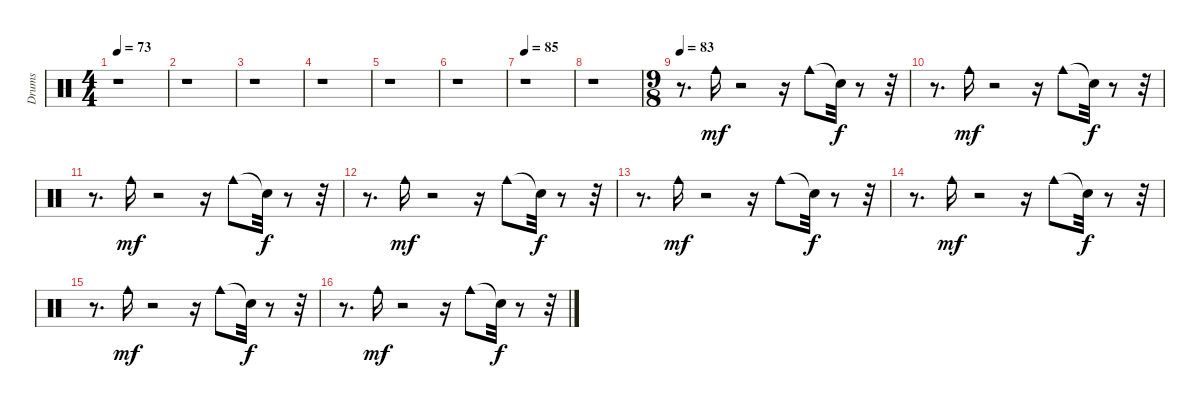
\track ("Drums" "Drums") {instrument percussion}
\staff {score}
\articulation defaults
\ts (4 4)
\tempo 73
\clef neutral
\ks c
r.1{dy mf} |
r.1 |
r.1 |
r.1 |
r.1 |
r.1 |
\tempo 85
r.1 |
r.1 |
\ts (9 8)
\tempo 83
r.8{d} "Cowbell medium (hit)".16 r.2 r.16 "Cowbell medium (hit)".8 "Snare (hit)"{t}.32{dy f} r.8 r.32 |
r.8{d} "Cowbell medium (hit)".16{dy mf} r.2 r.16 "Cowbell medium (hit)".8 "Snare (hit)"{t}.32{dy f} r.8 r.32 |
r.8{d} "Cowbell medium (hit)".16{dy mf} r.2 r.16 "Cowbell medium (hit)".8 "Snare (hit)"{t}.32{dy f} r.8 r.32 |
r.8{d} "Cowbell medium (hit)".16{dy mf} r.2 r.16 "Cowbell medium (hit)".8 "Snare (hit)"{t}.32{dy f} r.8 r.32 |
r.8{d} "Cowbell medium (hit)".16{dy mf} r.2 r.16 "Cowbell medium (hit)".8 "Snare (hit)"{t}.32{dy f} r.8 r.32 |
r.8{d} "Cowbell medium (hit)".16{dy mf} r.2 r.16 "Cowbell medium (hit)".8 "Snare (hit)"{t}.32{dy f} r.8 r.32 |
r.8{d} "Cowbell medium (hit)".16{dy mf} r.2 r.16 "Cowbell medium (hit)".8 "Snare (hit)"{t}.32{dy f} r.8 r.32 |
r.8{d} "Cowbell medium (hit)".16{dy mf} r.2 r.16 "Cowbell medium (hit)".8 "Snare (hit)"{t}.32{dy f} r.8 r.32
